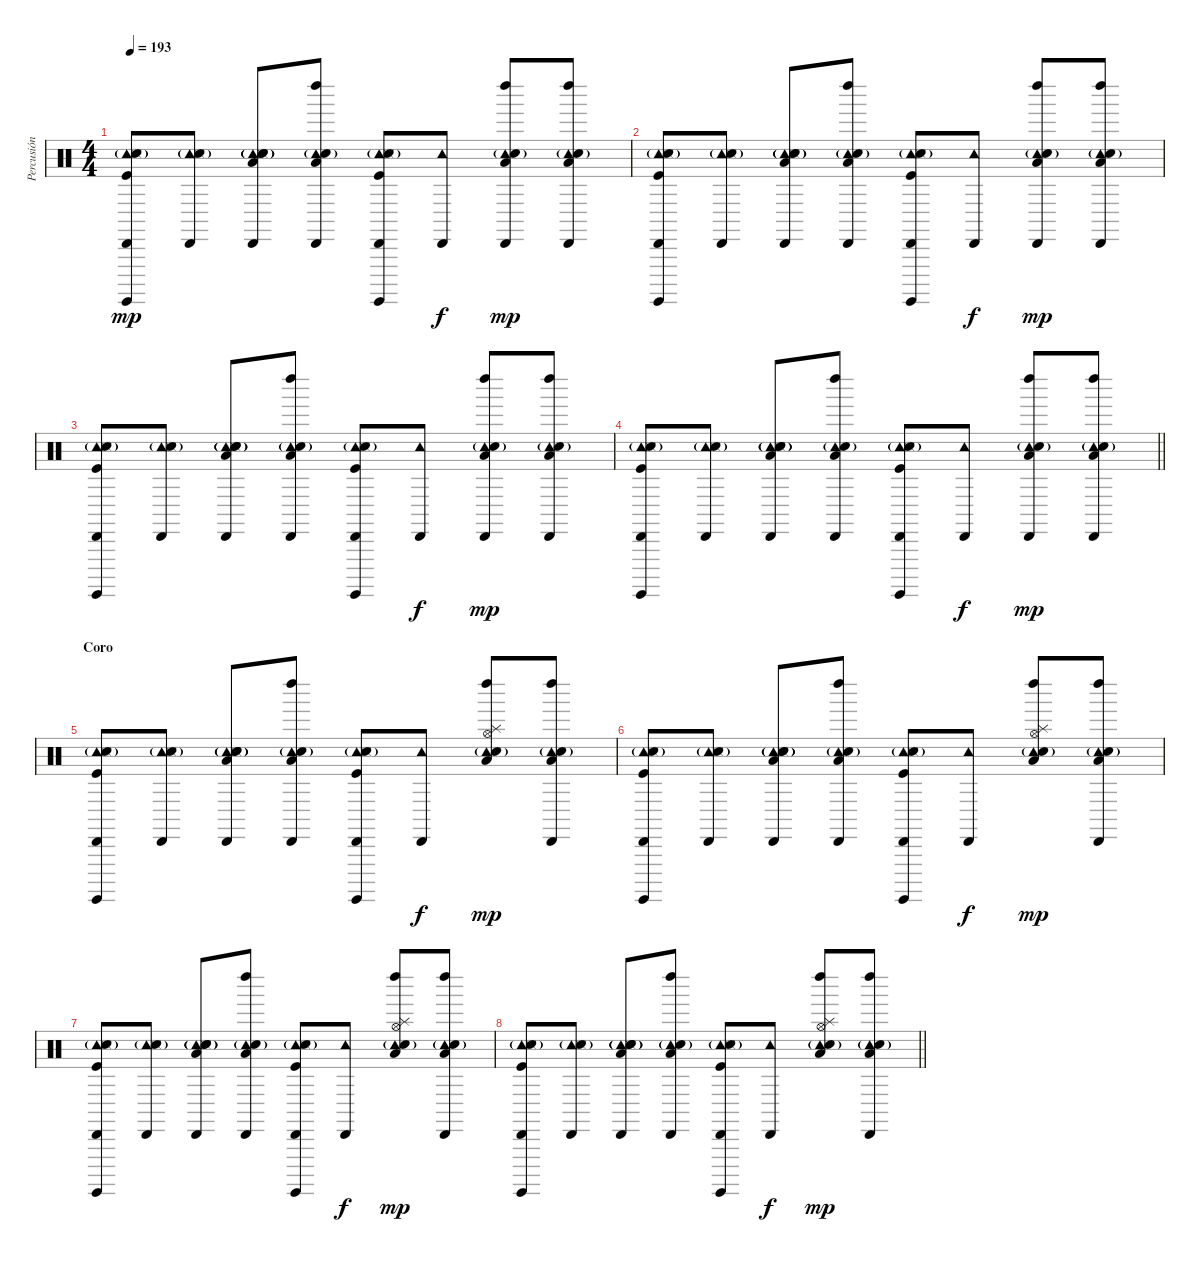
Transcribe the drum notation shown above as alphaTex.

\track ("Percusión" "Percusión") {instrument percussion}
\staff {score}
\articulation defaults
\ts (4 4)
\tempo 193
\clef neutral
\ks c
("Cabasa (hit)" "Tambourine (hit)" "Hand Clap (hit)"{g} "Metronome (hit)" "Surdo (hit)" "Kick (hit)").8{dy mp} ("Cabasa (hit)" "Tambourine (hit)" "Hand Clap (hit)"{g} "Metronome (hit)").8 ("Cabasa (hit)" "Tambourine (hit)" "Hand Clap (hit)"{g} "Metronome (hit)" "Low Tom (hit)" "Electric Snare (hit)"{g}).8 ("Cabasa (hit)" "Tambourine (hit)" "Left Maraca (hit)" "Low Tom (hit)" "Electric Snare (hit)"{g}).8 ("Cabasa (hit)" "Tambourine (hit)" "Hand Clap (hit)"{g} "Metronome (hit)" "Surdo (hit)" "Kick (hit)").8 ("Cabasa (hit)" "Tambourine (hit)").8{dy f} ("Cabasa (hit)" "Tambourine (hit)" "Left Maraca (hit)" "Low Tom (hit)" "Electric Snare (hit)"{g}).8{dy mp} ("Cabasa (hit)" "Tambourine (hit)" "Left Maraca (hit)" "Low Tom (hit)" "Electric Snare (hit)"{g}).8 |
("Cabasa (hit)" "Tambourine (hit)" "Hand Clap (hit)"{g} "Metronome (hit)" "Surdo (hit)" "Kick (hit)").8 ("Cabasa (hit)" "Tambourine (hit)" "Hand Clap (hit)"{g} "Metronome (hit)").8 ("Cabasa (hit)" "Tambourine (hit)" "Hand Clap (hit)"{g} "Metronome (hit)" "Low Tom (hit)" "Electric Snare (hit)"{g}).8 ("Cabasa (hit)" "Tambourine (hit)" "Left Maraca (hit)" "Low Tom (hit)" "Electric Snare (hit)"{g}).8 ("Cabasa (hit)" "Tambourine (hit)" "Hand Clap (hit)"{g} "Metronome (hit)" "Surdo (hit)" "Kick (hit)").8 ("Cabasa (hit)" "Tambourine (hit)").8{dy f} ("Cabasa (hit)" "Tambourine (hit)" "Left Maraca (hit)" "Low Tom (hit)" "Electric Snare (hit)"{g}).8{dy mp} ("Cabasa (hit)" "Tambourine (hit)" "Left Maraca (hit)" "Low Tom (hit)" "Electric Snare (hit)"{g}).8 |
("Cabasa (hit)" "Tambourine (hit)" "Hand Clap (hit)"{g} "Metronome (hit)" "Surdo (hit)" "Kick (hit)").8 ("Cabasa (hit)" "Tambourine (hit)" "Hand Clap (hit)"{g} "Metronome (hit)").8 ("Cabasa (hit)" "Tambourine (hit)" "Hand Clap (hit)"{g} "Metronome (hit)" "Low Tom (hit)" "Electric Snare (hit)"{g}).8 ("Cabasa (hit)" "Tambourine (hit)" "Left Maraca (hit)" "Low Tom (hit)" "Electric Snare (hit)"{g}).8 ("Cabasa (hit)" "Tambourine (hit)" "Hand Clap (hit)"{g} "Metronome (hit)" "Surdo (hit)" "Kick (hit)").8 ("Cabasa (hit)" "Tambourine (hit)").8{dy f} ("Cabasa (hit)" "Tambourine (hit)" "Left Maraca (hit)" "Low Tom (hit)" "Electric Snare (hit)"{g}).8{dy mp} ("Cabasa (hit)" "Tambourine (hit)" "Left Maraca (hit)" "Low Tom (hit)" "Electric Snare (hit)"{g}).8 |
\barLineRight lightlight
("Cabasa (hit)" "Tambourine (hit)" "Hand Clap (hit)"{g} "Metronome (hit)" "Surdo (hit)" "Kick (hit)").8 ("Cabasa (hit)" "Tambourine (hit)" "Hand Clap (hit)"{g} "Metronome (hit)").8 ("Cabasa (hit)" "Tambourine (hit)" "Hand Clap (hit)"{g} "Metronome (hit)" "Low Tom (hit)" "Electric Snare (hit)"{g}).8 ("Cabasa (hit)" "Tambourine (hit)" "Left Maraca (hit)" "Low Tom (hit)" "Electric Snare (hit)"{g}).8 ("Cabasa (hit)" "Tambourine (hit)" "Hand Clap (hit)"{g} "Metronome (hit)" "Surdo (hit)" "Kick (hit)").8 ("Cabasa (hit)" "Tambourine (hit)").8{dy f} ("Cabasa (hit)" "Tambourine (hit)" "Left Maraca (hit)" "Low Tom (hit)" "Electric Snare (hit)"{g}).8{dy mp} ("Cabasa (hit)" "Tambourine (hit)" "Left Maraca (hit)" "Low Tom (hit)" "Electric Snare (hit)"{g}).8 |
\section ("" "Coro")
("Cabasa (hit)" "Tambourine (hit)" "Hand Clap (hit)"{g} "Metronome (hit)" "Surdo (hit)" "Kick (hit)").8 ("Cabasa (hit)" "Tambourine (hit)" "Hand Clap (hit)"{g} "Metronome (hit)").8 ("Cabasa (hit)" "Tambourine (hit)" "Hand Clap (hit)"{g} "Metronome (hit)" "Low Tom (hit)" "Electric Snare (hit)"{g}).8 ("Cabasa (hit)" "Tambourine (hit)" "Left Maraca (hit)" "Low Tom (hit)" "Electric Snare (hit)"{g}).8 ("Cabasa (hit)" "Tambourine (hit)" "Hand Clap (hit)"{g} "Metronome (hit)" "Surdo (hit)" "Kick (hit)").8 ("Cabasa (hit)" "Tambourine (hit)").8{dy f} ("Hi-Hat (open)" "Tambourine (hit)" "Left Maraca (hit)" "Splash (hit)" "Low Tom (hit)" "Electric Snare (hit)"{g}).8{dy mp} ("Cabasa (hit)" "Tambourine (hit)" "Left Maraca (hit)" "Low Tom (hit)" "Electric Snare (hit)"{g}).8 |
("Cabasa (hit)" "Tambourine (hit)" "Hand Clap (hit)"{g} "Metronome (hit)" "Surdo (hit)" "Kick (hit)").8 ("Cabasa (hit)" "Tambourine (hit)" "Hand Clap (hit)"{g} "Metronome (hit)").8 ("Cabasa (hit)" "Tambourine (hit)" "Hand Clap (hit)"{g} "Metronome (hit)" "Low Tom (hit)" "Electric Snare (hit)"{g}).8 ("Cabasa (hit)" "Tambourine (hit)" "Left Maraca (hit)" "Low Tom (hit)" "Electric Snare (hit)"{g}).8 ("Cabasa (hit)" "Tambourine (hit)" "Hand Clap (hit)"{g} "Metronome (hit)" "Surdo (hit)" "Kick (hit)").8 ("Cabasa (hit)" "Tambourine (hit)").8{dy f} ("Hi-Hat (open)" "Tambourine (hit)" "Left Maraca (hit)" "Splash (hit)" "Low Tom (hit)" "Electric Snare (hit)"{g}).8{dy mp} ("Cabasa (hit)" "Tambourine (hit)" "Left Maraca (hit)" "Low Tom (hit)" "Electric Snare (hit)"{g}).8 |
("Cabasa (hit)" "Tambourine (hit)" "Hand Clap (hit)"{g} "Metronome (hit)" "Surdo (hit)" "Kick (hit)").8 ("Cabasa (hit)" "Tambourine (hit)" "Hand Clap (hit)"{g} "Metronome (hit)").8 ("Cabasa (hit)" "Tambourine (hit)" "Hand Clap (hit)"{g} "Metronome (hit)" "Low Tom (hit)" "Electric Snare (hit)"{g}).8 ("Cabasa (hit)" "Tambourine (hit)" "Left Maraca (hit)" "Low Tom (hit)" "Electric Snare (hit)"{g}).8 ("Cabasa (hit)" "Tambourine (hit)" "Hand Clap (hit)"{g} "Metronome (hit)" "Surdo (hit)" "Kick (hit)").8 ("Cabasa (hit)" "Tambourine (hit)").8{dy f} ("Hi-Hat (open)" "Tambourine (hit)" "Left Maraca (hit)" "Splash (hit)" "Low Tom (hit)" "Electric Snare (hit)"{g}).8{dy mp} ("Cabasa (hit)" "Tambourine (hit)" "Left Maraca (hit)" "Low Tom (hit)" "Electric Snare (hit)"{g}).8 |
\barLineRight lightlight
("Cabasa (hit)" "Tambourine (hit)" "Hand Clap (hit)"{g} "Metronome (hit)" "Surdo (hit)" "Kick (hit)").8 ("Cabasa (hit)" "Tambourine (hit)" "Hand Clap (hit)"{g} "Metronome (hit)").8 ("Cabasa (hit)" "Tambourine (hit)" "Hand Clap (hit)"{g} "Metronome (hit)" "Low Tom (hit)" "Electric Snare (hit)"{g}).8 ("Cabasa (hit)" "Tambourine (hit)" "Left Maraca (hit)" "Low Tom (hit)" "Electric Snare (hit)"{g}).8 ("Cabasa (hit)" "Tambourine (hit)" "Hand Clap (hit)"{g} "Metronome (hit)" "Surdo (hit)" "Kick (hit)").8 ("Cabasa (hit)" "Tambourine (hit)").8{dy f} ("Hi-Hat (open)" "Tambourine (hit)" "Left Maraca (hit)" "Splash (hit)" "Low Tom (hit)" "Electric Snare (hit)"{g}).8{dy mp} ("Cabasa (hit)" "Tambourine (hit)" "Left Maraca (hit)" "Low Tom (hit)" "Electric Snare (hit)"{g}).8
